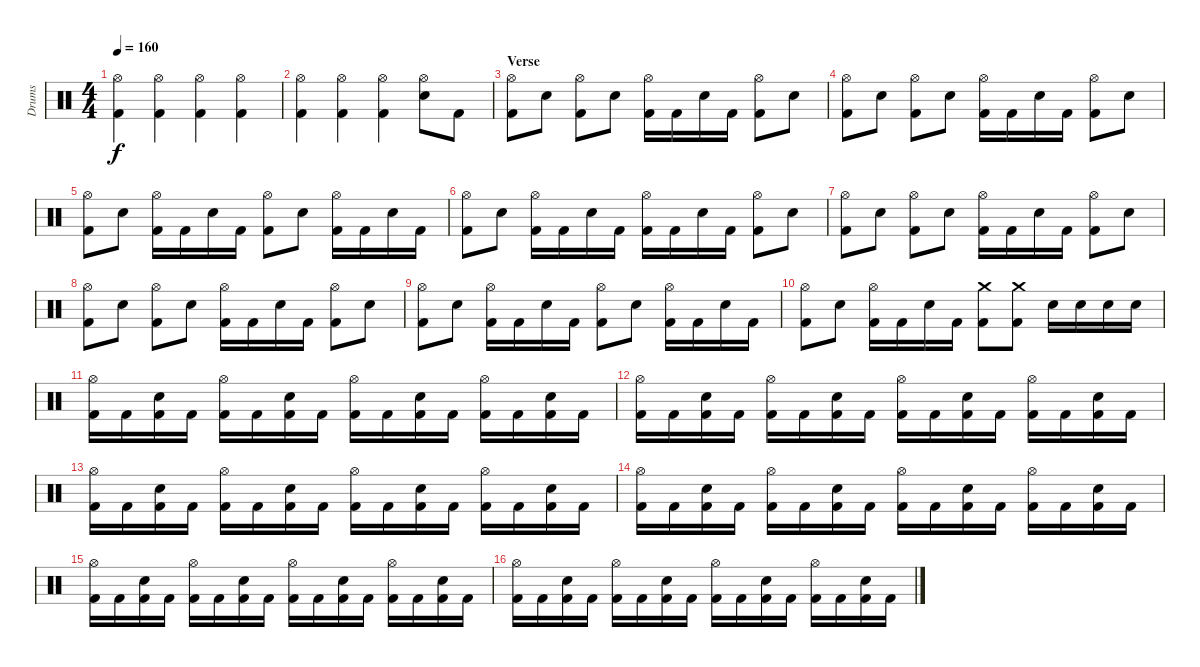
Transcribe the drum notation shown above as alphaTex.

\track ("Drums" "Drums") {instrument percussion}
\staff {score}
\articulation defaults
\ts (4 4)
\tempo 160
\clef neutral
\ks c
("Hi-Hat (open)" "Kick (hit) 2").4{dy f} ("Hi-Hat (open)" "Kick (hit) 2").4 ("Hi-Hat (open)" "Kick (hit) 2").4 ("Hi-Hat (open)" "Kick (hit) 2").4 |
("Hi-Hat (open)" "Kick (hit) 2").4 ("Hi-Hat (open)" "Kick (hit) 2").4 ("Hi-Hat (open)" "Kick (hit) 2").4 ("Hi-Hat (open)" "Electric Snare (hit)").8 "Kick (hit) 2".8 |
\section ("" "Verse")
("Hi-Hat (open)" "Kick (hit) 2").8 "Electric Snare (hit)".8 ("Hi-Hat (open)" "Kick (hit) 2").8 "Electric Snare (hit)".8 ("Hi-Hat (open)" "Kick (hit) 2").16 "Kick (hit) 2".16 "Electric Snare (hit)".16 "Kick (hit) 2".16 ("Hi-Hat (open)" "Kick (hit) 2").8 "Electric Snare (hit)".8 |
("Hi-Hat (open)" "Kick (hit) 2").8 "Electric Snare (hit)".8 ("Hi-Hat (open)" "Kick (hit) 2").8 "Electric Snare (hit)".8 ("Hi-Hat (open)" "Kick (hit) 2").16 "Kick (hit) 2".16 "Electric Snare (hit)".16 "Kick (hit) 2".16 ("Hi-Hat (open)" "Kick (hit) 2").8 "Electric Snare (hit)".8 |
("Hi-Hat (open)" "Kick (hit) 2").8 "Electric Snare (hit)".8 ("Hi-Hat (open)" "Kick (hit) 2").16 "Kick (hit) 2".16 "Electric Snare (hit)".16 "Kick (hit) 2".16 ("Hi-Hat (open)" "Kick (hit) 2").8 "Electric Snare (hit)".8 ("Hi-Hat (open)" "Kick (hit) 2").16 "Kick (hit) 2".16 "Electric Snare (hit)".16 "Kick (hit) 2".16 |
("Hi-Hat (open)" "Kick (hit) 2").8 "Electric Snare (hit)".8 ("Hi-Hat (open)" "Kick (hit) 2").16 "Kick (hit) 2".16 "Electric Snare (hit)".16 "Kick (hit) 2".16 ("Hi-Hat (open)" "Kick (hit) 2").16 "Kick (hit) 2".16 "Electric Snare (hit)".16 "Kick (hit) 2".16 ("Hi-Hat (open)" "Kick (hit) 2").8 "Electric Snare (hit)".8 |
("Hi-Hat (open)" "Kick (hit) 2").8 "Electric Snare (hit)".8 ("Hi-Hat (open)" "Kick (hit) 2").8 "Electric Snare (hit)".8 ("Hi-Hat (open)" "Kick (hit) 2").16 "Kick (hit) 2".16 "Electric Snare (hit)".16 "Kick (hit) 2".16 ("Hi-Hat (open)" "Kick (hit) 2").8 "Electric Snare (hit)".8 |
("Hi-Hat (open)" "Kick (hit) 2").8 "Electric Snare (hit)".8 ("Hi-Hat (open)" "Kick (hit) 2").8 "Electric Snare (hit)".8 ("Hi-Hat (open)" "Kick (hit) 2").16 "Kick (hit) 2".16 "Electric Snare (hit)".16 "Kick (hit) 2".16 ("Hi-Hat (open)" "Kick (hit) 2").8 "Electric Snare (hit)".8 |
("Hi-Hat (open)" "Kick (hit) 2").8 "Electric Snare (hit)".8 ("Hi-Hat (open)" "Kick (hit) 2").16 "Kick (hit) 2".16 "Electric Snare (hit)".16 "Kick (hit) 2".16 ("Hi-Hat (open)" "Kick (hit) 2").8 "Electric Snare (hit)".8 ("Hi-Hat (open)" "Kick (hit) 2").16 "Kick (hit) 2".16 "Electric Snare (hit)".16 "Kick (hit) 2".16 |
("Hi-Hat (open)" "Kick (hit) 2").8 "Electric Snare (hit)".8 ("Hi-Hat (open)" "Kick (hit) 2").16 "Kick (hit) 2".16 "Electric Snare (hit)".16 "Kick (hit) 2".16 ("Crash medium (hit)" "Kick (hit) 2").8 ("Crash medium (hit)" "Kick (hit) 2").8 "Electric Snare (hit)".16 "Electric Snare (hit)".16 "Electric Snare (hit)".16 "Electric Snare (hit)".16 |
("Hi-Hat (open)" "Kick (hit) 2").16 "Kick (hit) 2".16 ("Electric Snare (hit)" "Kick (hit) 2").16 "Kick (hit) 2".16 ("Hi-Hat (open)" "Kick (hit) 2").16 "Kick (hit) 2".16 ("Electric Snare (hit)" "Kick (hit) 2").16 "Kick (hit) 2".16 ("Hi-Hat (open)" "Kick (hit) 2").16 "Kick (hit) 2".16 ("Electric Snare (hit)" "Kick (hit) 2").16 "Kick (hit) 2".16 ("Hi-Hat (open)" "Kick (hit) 2").16 "Kick (hit) 2".16 ("Electric Snare (hit)" "Kick (hit) 2").16 "Kick (hit) 2".16 |
("Hi-Hat (open)" "Kick (hit) 2").16 "Kick (hit) 2".16 ("Electric Snare (hit)" "Kick (hit) 2").16 "Kick (hit) 2".16 ("Hi-Hat (open)" "Kick (hit) 2").16 "Kick (hit) 2".16 ("Electric Snare (hit)" "Kick (hit) 2").16 "Kick (hit) 2".16 ("Hi-Hat (open)" "Kick (hit) 2").16 "Kick (hit) 2".16 ("Electric Snare (hit)" "Kick (hit) 2").16 "Kick (hit) 2".16 ("Hi-Hat (open)" "Kick (hit) 2").16 "Kick (hit) 2".16 ("Electric Snare (hit)" "Kick (hit) 2").16 "Kick (hit) 2".16 |
("Hi-Hat (open)" "Kick (hit) 2").16 "Kick (hit) 2".16 ("Electric Snare (hit)" "Kick (hit) 2").16 "Kick (hit) 2".16 ("Hi-Hat (open)" "Kick (hit) 2").16 "Kick (hit) 2".16 ("Electric Snare (hit)" "Kick (hit) 2").16 "Kick (hit) 2".16 ("Hi-Hat (open)" "Kick (hit) 2").16 "Kick (hit) 2".16 ("Electric Snare (hit)" "Kick (hit) 2").16 "Kick (hit) 2".16 ("Hi-Hat (open)" "Kick (hit) 2").16 "Kick (hit) 2".16 ("Electric Snare (hit)" "Kick (hit) 2").16 "Kick (hit) 2".16 |
("Hi-Hat (open)" "Kick (hit) 2").16 "Kick (hit) 2".16 ("Electric Snare (hit)" "Kick (hit) 2").16 "Kick (hit) 2".16 ("Hi-Hat (open)" "Kick (hit) 2").16 "Kick (hit) 2".16 ("Electric Snare (hit)" "Kick (hit) 2").16 "Kick (hit) 2".16 ("Hi-Hat (open)" "Kick (hit) 2").16 "Kick (hit) 2".16 ("Electric Snare (hit)" "Kick (hit) 2").16 "Kick (hit) 2".16 ("Hi-Hat (open)" "Kick (hit) 2").16 "Kick (hit) 2".16 ("Electric Snare (hit)" "Kick (hit) 2").16 "Kick (hit) 2".16 |
("Hi-Hat (open)" "Kick (hit) 2").16 "Kick (hit) 2".16 ("Electric Snare (hit)" "Kick (hit) 2").16 "Kick (hit) 2".16 ("Hi-Hat (open)" "Kick (hit) 2").16 "Kick (hit) 2".16 ("Electric Snare (hit)" "Kick (hit) 2").16 "Kick (hit) 2".16 ("Hi-Hat (open)" "Kick (hit) 2").16 "Kick (hit) 2".16 ("Electric Snare (hit)" "Kick (hit) 2").16 "Kick (hit) 2".16 ("Hi-Hat (open)" "Kick (hit) 2").16 "Kick (hit) 2".16 ("Electric Snare (hit)" "Kick (hit) 2").16 "Kick (hit) 2".16 |
("Hi-Hat (open)" "Kick (hit) 2").16 "Kick (hit) 2".16 ("Electric Snare (hit)" "Kick (hit) 2").16 "Kick (hit) 2".16 ("Hi-Hat (open)" "Kick (hit) 2").16 "Kick (hit) 2".16 ("Electric Snare (hit)" "Kick (hit) 2").16 "Kick (hit) 2".16 ("Hi-Hat (open)" "Kick (hit) 2").16 "Kick (hit) 2".16 ("Electric Snare (hit)" "Kick (hit) 2").16 "Kick (hit) 2".16 ("Hi-Hat (open)" "Kick (hit) 2").16 "Kick (hit) 2".16 ("Electric Snare (hit)" "Kick (hit) 2").16 "Kick (hit) 2".16
